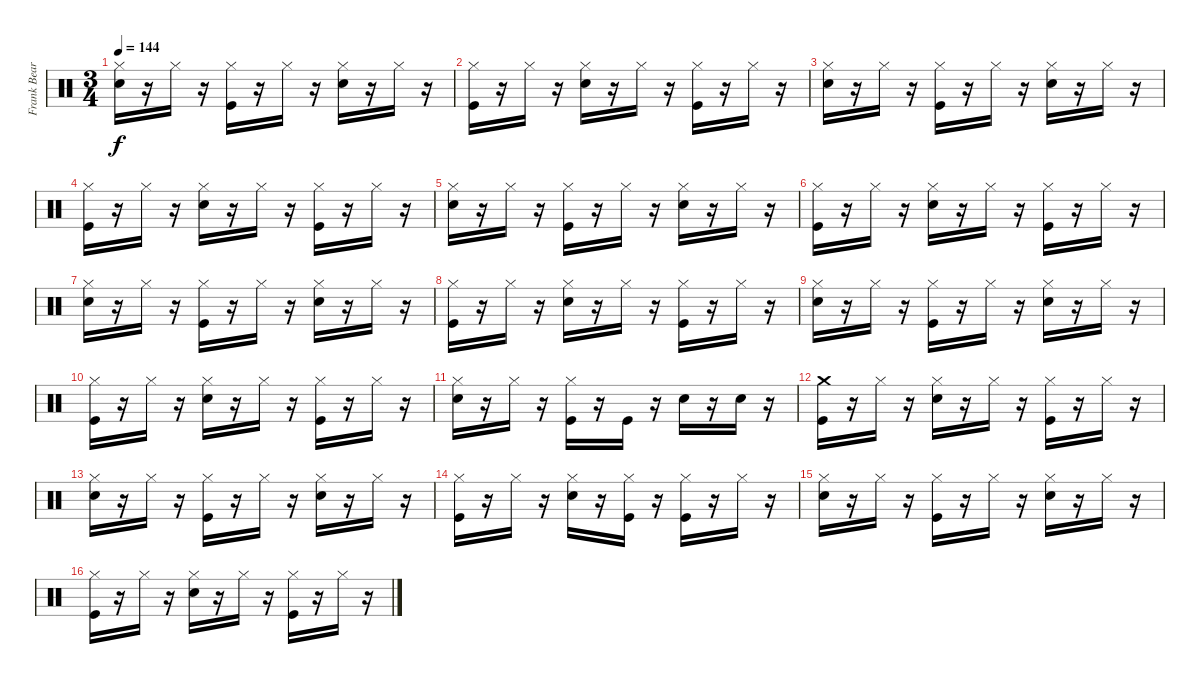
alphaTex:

\track ("Frank Beard" "Frank Bear") {instrument percussion}
\staff {score}
\articulation defaults
\ts (3 4)
\tempo 144
\clef neutral
\ks c
("Hi-Hat (closed)" "Electric Snare (hit)").16{dy f} r.16 "Hi-Hat (closed)".16 r.16 ("Hi-Hat (closed)" "Kick (hit)").16 r.16 "Hi-Hat (closed)".16 r.16 ("Hi-Hat (closed)" "Electric Snare (hit)").16 r.16 "Hi-Hat (closed)".16 r.16 |
("Hi-Hat (closed)" "Kick (hit)").16 r.16 "Hi-Hat (closed)".16 r.16 ("Hi-Hat (closed)" "Electric Snare (hit)").16 r.16 "Hi-Hat (closed)".16 r.16 ("Hi-Hat (closed)" "Kick (hit)").16 r.16 "Hi-Hat (closed)".16 r.16 |
("Hi-Hat (closed)" "Electric Snare (hit)").16 r.16 "Hi-Hat (closed)".16 r.16 ("Hi-Hat (closed)" "Kick (hit)").16 r.16 "Hi-Hat (closed)".16 r.16 ("Hi-Hat (closed)" "Electric Snare (hit)").16 r.16 "Hi-Hat (closed)".16 r.16 |
("Hi-Hat (closed)" "Kick (hit)").16 r.16 "Hi-Hat (closed)".16 r.16 ("Hi-Hat (closed)" "Electric Snare (hit)").16 r.16 "Hi-Hat (closed)".16 r.16 ("Hi-Hat (closed)" "Kick (hit)").16 r.16 "Hi-Hat (closed)".16 r.16 |
("Hi-Hat (closed)" "Electric Snare (hit)").16 r.16 "Hi-Hat (closed)".16 r.16 ("Hi-Hat (closed)" "Kick (hit)").16 r.16 "Hi-Hat (closed)".16 r.16 ("Hi-Hat (closed)" "Electric Snare (hit)").16 r.16 "Hi-Hat (closed)".16 r.16 |
("Hi-Hat (closed)" "Kick (hit)").16 r.16 "Hi-Hat (closed)".16 r.16 ("Hi-Hat (closed)" "Electric Snare (hit)").16 r.16 "Hi-Hat (closed)".16 r.16 ("Hi-Hat (closed)" "Kick (hit)").16 r.16 "Hi-Hat (closed)".16 r.16 |
("Hi-Hat (closed)" "Electric Snare (hit)").16 r.16 "Hi-Hat (closed)".16 r.16 ("Hi-Hat (closed)" "Kick (hit)").16 r.16 "Hi-Hat (closed)".16 r.16 ("Hi-Hat (closed)" "Electric Snare (hit)").16 r.16 "Hi-Hat (closed)".16 r.16 |
("Hi-Hat (closed)" "Kick (hit)").16 r.16 "Hi-Hat (closed)".16 r.16 ("Hi-Hat (closed)" "Electric Snare (hit)").16 r.16 "Hi-Hat (closed)".16 r.16 ("Hi-Hat (closed)" "Kick (hit)").16 r.16 "Hi-Hat (closed)".16 r.16 |
("Hi-Hat (closed)" "Electric Snare (hit)").16 r.16 "Hi-Hat (closed)".16 r.16 ("Hi-Hat (closed)" "Kick (hit)").16 r.16 "Hi-Hat (closed)".16 r.16 ("Hi-Hat (closed)" "Electric Snare (hit)").16 r.16 "Hi-Hat (closed)".16 r.16 |
("Hi-Hat (closed)" "Kick (hit)").16 r.16 "Hi-Hat (closed)".16 r.16 ("Hi-Hat (closed)" "Electric Snare (hit)").16 r.16 "Hi-Hat (closed)".16 r.16 ("Hi-Hat (closed)" "Kick (hit)").16 r.16 "Hi-Hat (closed)".16 r.16 |
("Hi-Hat (closed)" "Electric Snare (hit)").16 r.16 "Hi-Hat (closed)".16 r.16 ("Hi-Hat (closed)" "Kick (hit)").16 r.16 "Kick (hit)".16 r.16 "Electric Snare (hit)".16 r.16 "Electric Snare (hit)".16 r.16 |
("Crash medium (hit)" "Kick (hit)").16 r.16 "Hi-Hat (closed)".16 r.16 ("Hi-Hat (closed)" "Electric Snare (hit)").16 r.16 "Hi-Hat (closed)".16 r.16 ("Hi-Hat (closed)" "Kick (hit)").16 r.16 "Hi-Hat (closed)".16 r.16 |
("Hi-Hat (closed)" "Electric Snare (hit)").16 r.16 "Hi-Hat (closed)".16 r.16 ("Hi-Hat (closed)" "Kick (hit)").16 r.16 "Hi-Hat (closed)".16 r.16 ("Hi-Hat (closed)" "Electric Snare (hit)").16 r.16 "Hi-Hat (closed)".16 r.16 |
("Hi-Hat (closed)" "Kick (hit)").16 r.16 "Hi-Hat (closed)".16 r.16 ("Hi-Hat (closed)" "Electric Snare (hit)").16 r.16 ("Hi-Hat (closed)" "Kick (hit)").16 r.16 ("Hi-Hat (closed)" "Kick (hit)").16 r.16 "Hi-Hat (closed)".16 r.16 |
("Hi-Hat (closed)" "Electric Snare (hit)").16 r.16 "Hi-Hat (closed)".16 r.16 ("Hi-Hat (closed)" "Kick (hit)").16 r.16 "Hi-Hat (closed)".16 r.16 ("Hi-Hat (closed)" "Electric Snare (hit)").16 r.16 "Hi-Hat (closed)".16 r.16 |
("Hi-Hat (closed)" "Kick (hit)").16 r.16 "Hi-Hat (closed)".16 r.16 ("Hi-Hat (closed)" "Electric Snare (hit)").16 r.16 "Hi-Hat (closed)".16 r.16 ("Hi-Hat (closed)" "Kick (hit)").16 r.16 "Hi-Hat (closed)".16 r.16
